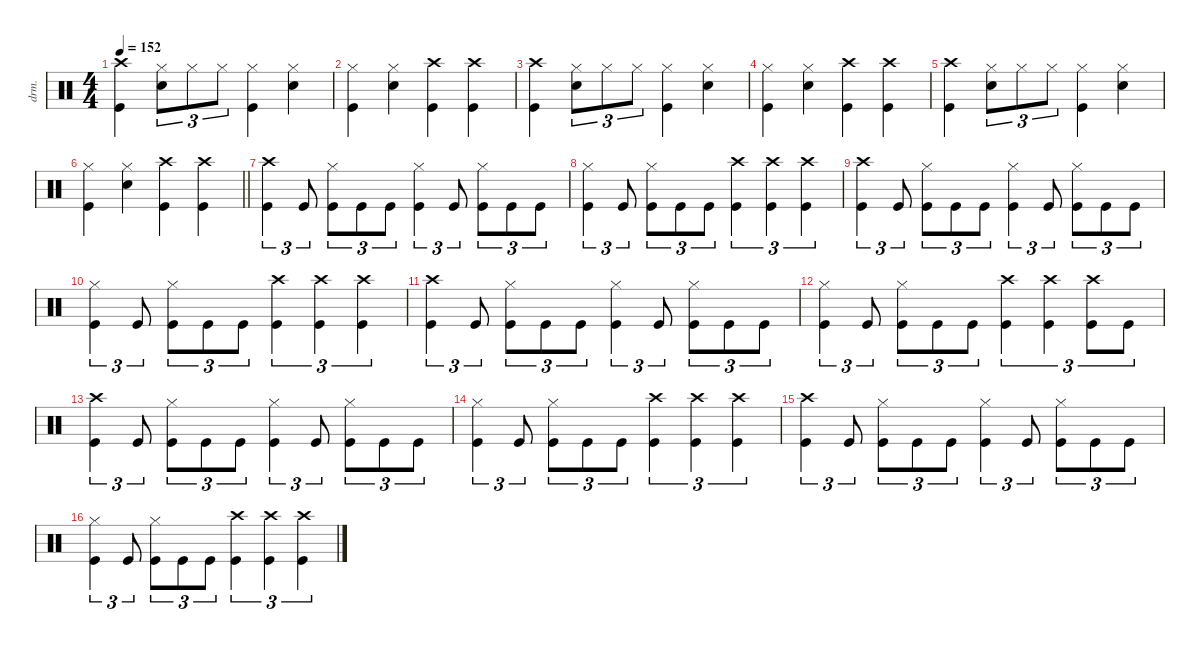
\defaultSystemsLayout 4
\hideDynamics
\bracketExtendMode nobrackets
\otherSystemsTrackNameOrientation horizontal
\track ("Nick Menza" "drm.") {instrument percussion}
\staff {score}
\articulation defaults
\ts (4 4)
\tempo 152
\clef neutral
\ks c
("Crash high (hit)" "Kick (hit)").4{dy f beam Down} ("Hi-Hat (closed)" "Snare (hit) 2").8{tu (3 2) beam Down} "Hi-Hat (closed)".8{tu (3 2) beam Down} "Hi-Hat (closed)".8{tu (3 2) beam Down} ("Hi-Hat (closed)" "Kick (hit)").4{beam Down} ("Hi-Hat (closed)" "Snare (hit) 2").4{beam Down} |
("Hi-Hat (closed)" "Kick (hit)").4{beam Down} ("Hi-Hat (closed)" "Snare (hit) 2").4{beam Down} ("Crash high (hit)" "Kick (hit)").4{beam Down} ("Crash high (hit)" "Kick (hit)").4{beam Down} |
("Crash high (hit)" "Kick (hit)").4{beam Down} ("Hi-Hat (closed)" "Snare (hit) 2").8{tu (3 2) beam Down} "Hi-Hat (closed)".8{tu (3 2) beam Down} "Hi-Hat (closed)".8{tu (3 2) beam Down} ("Hi-Hat (closed)" "Kick (hit)").4{beam Down} ("Hi-Hat (closed)" "Snare (hit) 2").4{beam Down} |
("Hi-Hat (closed)" "Kick (hit)").4{beam Down} ("Hi-Hat (closed)" "Snare (hit) 2").4{beam Down} ("Crash high (hit)" "Kick (hit)").4{beam Down} ("Crash high (hit)" "Kick (hit)").4{beam Down} |
("Crash high (hit)" "Kick (hit)").4{beam Down} ("Hi-Hat (closed)" "Snare (hit) 2").8{tu (3 2) beam Down} "Hi-Hat (closed)".8{tu (3 2) beam Down} "Hi-Hat (closed)".8{tu (3 2) beam Down} ("Hi-Hat (closed)" "Kick (hit)").4{beam Down} ("Hi-Hat (closed)" "Snare (hit) 2").4{beam Down} |
\barLineRight lightlight
("Hi-Hat (closed)" "Kick (hit)").4{beam Down} ("Hi-Hat (closed)" "Snare (hit) 2").4{beam Down} ("Crash high (hit)" "Kick (hit)").4{beam Down} ("Crash high (hit)" "Kick (hit)").4{beam Down} |
("Crash high (hit)" "Kick (hit)").4{tu (3 2) beam Down} "Kick (hit)".8{tu (3 2) beam Up} ("Hi-Hat (closed)" "Kick (hit)").8{tu (3 2) beam Down} "Kick (hit)".8{tu (3 2) beam Down} "Kick (hit)".8{tu (3 2) beam Down} ("Hi-Hat (closed)" "Kick (hit)").4{tu (3 2) beam Down} "Kick (hit)".8{tu (3 2) beam Up} ("Hi-Hat (closed)" "Kick (hit)").8{tu (3 2) beam Down} "Kick (hit)".8{tu (3 2) beam Down} "Kick (hit)".8{tu (3 2) beam Down} |
("Hi-Hat (closed)" "Kick (hit)").4{tu (3 2) beam Down} "Kick (hit)".8{tu (3 2) beam Up} ("Hi-Hat (closed)" "Kick (hit)").8{tu (3 2) beam Down} "Kick (hit)".8{tu (3 2) beam Down} "Kick (hit)".8{tu (3 2) beam Down} ("Crash high (hit)" "Kick (hit)").4{tu (3 2) beam Down} ("Crash high (hit)" "Kick (hit)").4{tu (3 2) beam Down} ("Crash high (hit)" "Kick (hit)").4{tu (3 2) beam Down} |
("Crash high (hit)" "Kick (hit)").4{tu (3 2) beam Down} "Kick (hit)".8{tu (3 2) beam Up} ("Hi-Hat (closed)" "Kick (hit)").8{tu (3 2) beam Down} "Kick (hit)".8{tu (3 2) beam Down} "Kick (hit)".8{tu (3 2) beam Down} ("Hi-Hat (closed)" "Kick (hit)").4{tu (3 2) beam Down} "Kick (hit)".8{tu (3 2) beam Up} ("Hi-Hat (closed)" "Kick (hit)").8{tu (3 2) beam Down} "Kick (hit)".8{tu (3 2) beam Down} "Kick (hit)".8{tu (3 2) beam Down} |
("Hi-Hat (closed)" "Kick (hit)").4{tu (3 2) beam Down} "Kick (hit)".8{tu (3 2) beam Up} ("Hi-Hat (closed)" "Kick (hit)").8{tu (3 2) beam Down} "Kick (hit)".8{tu (3 2) beam Down} "Kick (hit)".8{tu (3 2) beam Down} ("Crash high (hit)" "Kick (hit)").4{tu (3 2) beam Down} ("Crash high (hit)" "Kick (hit)").4{tu (3 2) beam Down} ("Crash high (hit)" "Kick (hit)").4{tu (3 2) beam Down} |
("Crash high (hit)" "Kick (hit)").4{tu (3 2) beam Down} "Kick (hit)".8{tu (3 2) beam Up} ("Hi-Hat (closed)" "Kick (hit)").8{tu (3 2) beam Down} "Kick (hit)".8{tu (3 2) beam Down} "Kick (hit)".8{tu (3 2) beam Down} ("Hi-Hat (closed)" "Kick (hit)").4{tu (3 2) beam Down} "Kick (hit)".8{tu (3 2) beam Up} ("Hi-Hat (closed)" "Kick (hit)").8{tu (3 2) beam Down} "Kick (hit)".8{tu (3 2) beam Down} "Kick (hit)".8{tu (3 2) beam Down} |
("Hi-Hat (closed)" "Kick (hit)").4{tu (3 2) beam Down} "Kick (hit)".8{tu (3 2) beam Up} ("Hi-Hat (closed)" "Kick (hit)").8{tu (3 2) beam Down} "Kick (hit)".8{tu (3 2) beam Down} "Kick (hit)".8{tu (3 2) beam Down} ("Crash high (hit)" "Kick (hit)").4{tu (3 2) beam Down} ("Crash high (hit)" "Kick (hit)").4{tu (3 2) beam Down} ("Crash high (hit)" "Kick (hit)").8{tu (3 2) beam Down} "Kick (hit)".8{tu (3 2) beam Down} |
("Crash high (hit)" "Kick (hit)").4{tu (3 2) beam Down} "Kick (hit)".8{tu (3 2) beam Up} ("Hi-Hat (closed)" "Kick (hit)").8{tu (3 2) beam Down} "Kick (hit)".8{tu (3 2) beam Down} "Kick (hit)".8{tu (3 2) beam Down} ("Hi-Hat (closed)" "Kick (hit)").4{tu (3 2) beam Down} "Kick (hit)".8{tu (3 2) beam Up} ("Hi-Hat (closed)" "Kick (hit)").8{tu (3 2) beam Down} "Kick (hit)".8{tu (3 2) beam Down} "Kick (hit)".8{tu (3 2) beam Down} |
("Hi-Hat (closed)" "Kick (hit)").4{tu (3 2) beam Down} "Kick (hit)".8{tu (3 2) beam Up} ("Hi-Hat (closed)" "Kick (hit)").8{tu (3 2) beam Down} "Kick (hit)".8{tu (3 2) beam Down} "Kick (hit)".8{tu (3 2) beam Down} ("Crash high (hit)" "Kick (hit)").4{tu (3 2) beam Down} ("Crash high (hit)" "Kick (hit)").4{tu (3 2) beam Down} ("Crash high (hit)" "Kick (hit)").4{tu (3 2) beam Down} |
("Crash high (hit)" "Kick (hit)").4{tu (3 2) beam Down} "Kick (hit)".8{tu (3 2) beam Up} ("Hi-Hat (closed)" "Kick (hit)").8{tu (3 2) beam Down} "Kick (hit)".8{tu (3 2) beam Down} "Kick (hit)".8{tu (3 2) beam Down} ("Hi-Hat (closed)" "Kick (hit)").4{tu (3 2) beam Down} "Kick (hit)".8{tu (3 2) beam Up} ("Hi-Hat (closed)" "Kick (hit)").8{tu (3 2) beam Down} "Kick (hit)".8{tu (3 2) beam Down} "Kick (hit)".8{tu (3 2) beam Down} |
("Hi-Hat (closed)" "Kick (hit)").4{tu (3 2) beam Down} "Kick (hit)".8{tu (3 2) beam Up} ("Hi-Hat (closed)" "Kick (hit)").8{tu (3 2) beam Down} "Kick (hit)".8{tu (3 2) beam Down} "Kick (hit)".8{tu (3 2) beam Down} ("Crash high (hit)" "Kick (hit)").4{tu (3 2) beam Down} ("Crash high (hit)" "Kick (hit)").4{tu (3 2) beam Down} ("Crash high (hit)" "Kick (hit)").4{tu (3 2) beam Down}
